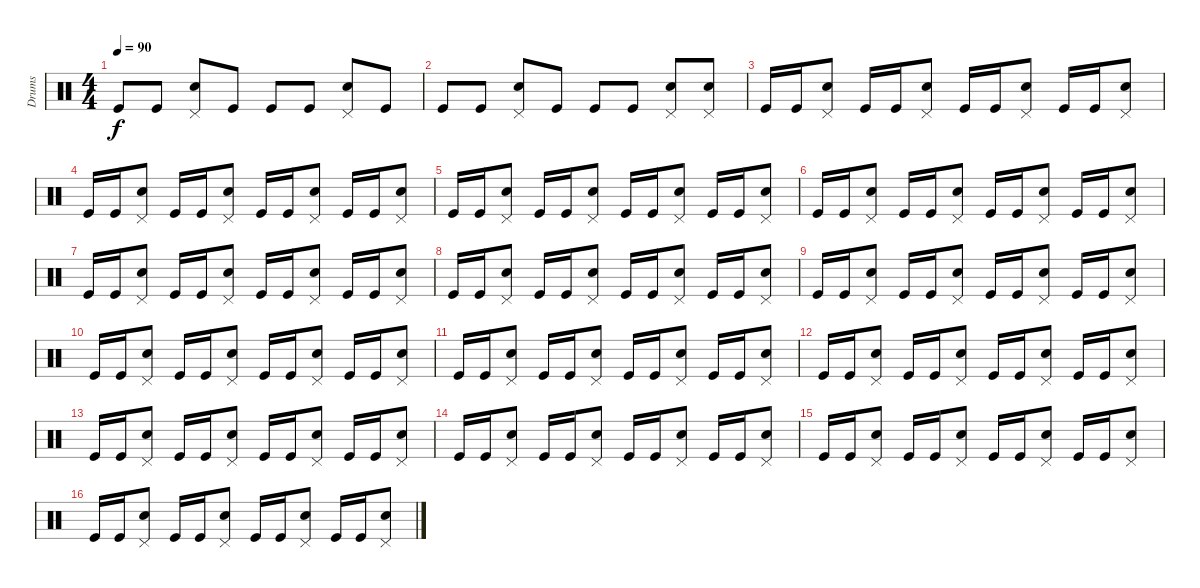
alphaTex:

\track ("Drums" "Drums") {instrument percussion}
\staff {score}
\articulation defaults
\ts (4 4)
\tempo 90
\clef neutral
\ks c "Kick (hit)".8{dy f} "Kick (hit)".8
("Snare (hit) 2" "Pedal Hi-Hat (hit)").8 "Kick (hit)".8 "Kick (hit)".8 "Kick (hit)".8 ("Snare (hit) 2" "Pedal Hi-Hat (hit)").8 "Kick (hit)".8 |
"Kick (hit)".8 "Kick (hit)".8 ("Snare (hit) 2" "Pedal Hi-Hat (hit)").8 "Kick (hit)".8 "Kick (hit)".8 "Kick (hit)".8 ("Snare (hit) 2" "Pedal Hi-Hat (hit)").8 ("Snare (hit) 2" "Pedal Hi-Hat (hit)").8 |
"Kick (hit)".16 "Kick (hit)".16 ("Snare (hit) 2" "Pedal Hi-Hat (hit)").8 "Kick (hit)".16 "Kick (hit)".16 ("Snare (hit) 2" "Pedal Hi-Hat (hit)").8 "Kick (hit)".16 "Kick (hit)".16 ("Snare (hit) 2" "Pedal Hi-Hat (hit)").8 "Kick (hit)".16 "Kick (hit)".16 ("Snare (hit) 2" "Pedal Hi-Hat (hit)").8 |
"Kick (hit)".16 "Kick (hit)".16 ("Snare (hit) 2" "Pedal Hi-Hat (hit)").8 "Kick (hit)".16 "Kick (hit)".16 ("Snare (hit) 2" "Pedal Hi-Hat (hit)").8 "Kick (hit)".16 "Kick (hit)".16 ("Snare (hit) 2" "Pedal Hi-Hat (hit)").8 "Kick (hit)".16 "Kick (hit)".16 ("Snare (hit) 2" "Pedal Hi-Hat (hit)").8 |
"Kick (hit)".16 "Kick (hit)".16 ("Snare (hit) 2" "Pedal Hi-Hat (hit)").8 "Kick (hit)".16 "Kick (hit)".16 ("Snare (hit) 2" "Pedal Hi-Hat (hit)").8 "Kick (hit)".16 "Kick (hit)".16 ("Snare (hit) 2" "Pedal Hi-Hat (hit)").8 "Kick (hit)".16 "Kick (hit)".16 ("Snare (hit) 2" "Pedal Hi-Hat (hit)").8 |
"Kick (hit)".16 "Kick (hit)".16 ("Snare (hit) 2" "Pedal Hi-Hat (hit)").8 "Kick (hit)".16 "Kick (hit)".16 ("Snare (hit) 2" "Pedal Hi-Hat (hit)").8 "Kick (hit)".16 "Kick (hit)".16 ("Snare (hit) 2" "Pedal Hi-Hat (hit)").8 "Kick (hit)".16 "Kick (hit)".16 ("Snare (hit) 2" "Pedal Hi-Hat (hit)").8 |
"Kick (hit)".16 "Kick (hit)".16 ("Snare (hit) 2" "Pedal Hi-Hat (hit)").8 "Kick (hit)".16 "Kick (hit)".16 ("Snare (hit) 2" "Pedal Hi-Hat (hit)").8 "Kick (hit)".16 "Kick (hit)".16 ("Snare (hit) 2" "Pedal Hi-Hat (hit)").8 "Kick (hit)".16 "Kick (hit)".16 ("Snare (hit) 2" "Pedal Hi-Hat (hit)").8 |
"Kick (hit)".16 "Kick (hit)".16 ("Snare (hit) 2" "Pedal Hi-Hat (hit)").8 "Kick (hit)".16 "Kick (hit)".16 ("Snare (hit) 2" "Pedal Hi-Hat (hit)").8 "Kick (hit)".16 "Kick (hit)".16 ("Snare (hit) 2" "Pedal Hi-Hat (hit)").8 "Kick (hit)".16 "Kick (hit)".16 ("Snare (hit) 2" "Pedal Hi-Hat (hit)").8 |
"Kick (hit)".16 "Kick (hit)".16 ("Snare (hit) 2" "Pedal Hi-Hat (hit)").8 "Kick (hit)".16 "Kick (hit)".16 ("Snare (hit) 2" "Pedal Hi-Hat (hit)").8 "Kick (hit)".16 "Kick (hit)".16 ("Snare (hit) 2" "Pedal Hi-Hat (hit)").8 "Kick (hit)".16 "Kick (hit)".16 ("Snare (hit) 2" "Pedal Hi-Hat (hit)").8 |
"Kick (hit)".16 "Kick (hit)".16 ("Snare (hit) 2" "Pedal Hi-Hat (hit)").8 "Kick (hit)".16 "Kick (hit)".16 ("Snare (hit) 2" "Pedal Hi-Hat (hit)").8 "Kick (hit)".16 "Kick (hit)".16 ("Snare (hit) 2" "Pedal Hi-Hat (hit)").8 "Kick (hit)".16 "Kick (hit)".16 ("Snare (hit) 2" "Pedal Hi-Hat (hit)").8 |
"Kick (hit)".16 "Kick (hit)".16 ("Snare (hit) 2" "Pedal Hi-Hat (hit)").8 "Kick (hit)".16 "Kick (hit)".16 ("Snare (hit) 2" "Pedal Hi-Hat (hit)").8 "Kick (hit)".16 "Kick (hit)".16 ("Snare (hit) 2" "Pedal Hi-Hat (hit)").8 "Kick (hit)".16 "Kick (hit)".16 ("Snare (hit) 2" "Pedal Hi-Hat (hit)").8 |
"Kick (hit)".16 "Kick (hit)".16 ("Snare (hit) 2" "Pedal Hi-Hat (hit)").8 "Kick (hit)".16 "Kick (hit)".16 ("Snare (hit) 2" "Pedal Hi-Hat (hit)").8 "Kick (hit)".16 "Kick (hit)".16 ("Snare (hit) 2" "Pedal Hi-Hat (hit)").8 "Kick (hit)".16 "Kick (hit)".16 ("Snare (hit) 2" "Pedal Hi-Hat (hit)").8 |
"Kick (hit)".16 "Kick (hit)".16 ("Snare (hit) 2" "Pedal Hi-Hat (hit)").8 "Kick (hit)".16 "Kick (hit)".16 ("Snare (hit) 2" "Pedal Hi-Hat (hit)").8 "Kick (hit)".16 "Kick (hit)".16 ("Snare (hit) 2" "Pedal Hi-Hat (hit)").8 "Kick (hit)".16 "Kick (hit)".16 ("Snare (hit) 2" "Pedal Hi-Hat (hit)").8 |
"Kick (hit)".16 "Kick (hit)".16 ("Snare (hit) 2" "Pedal Hi-Hat (hit)").8 "Kick (hit)".16 "Kick (hit)".16 ("Snare (hit) 2" "Pedal Hi-Hat (hit)").8 "Kick (hit)".16 "Kick (hit)".16 ("Snare (hit) 2" "Pedal Hi-Hat (hit)").8 "Kick (hit)".16 "Kick (hit)".16 ("Snare (hit) 2" "Pedal Hi-Hat (hit)").8 |
"Kick (hit)".16 "Kick (hit)".16 ("Snare (hit) 2" "Pedal Hi-Hat (hit)").8 "Kick (hit)".16 "Kick (hit)".16 ("Snare (hit) 2" "Pedal Hi-Hat (hit)").8 "Kick (hit)".16 "Kick (hit)".16 ("Snare (hit) 2" "Pedal Hi-Hat (hit)").8 "Kick (hit)".16 "Kick (hit)".16 ("Snare (hit) 2" "Pedal Hi-Hat (hit)").8 |
"Kick (hit)".16 "Kick (hit)".16 ("Snare (hit) 2" "Pedal Hi-Hat (hit)").8 "Kick (hit)".16 "Kick (hit)".16 ("Snare (hit) 2" "Pedal Hi-Hat (hit)").8 "Kick (hit)".16 "Kick (hit)".16 ("Snare (hit) 2" "Pedal Hi-Hat (hit)").8 "Kick (hit)".16 "Kick (hit)".16 ("Snare (hit) 2" "Pedal Hi-Hat (hit)").8
